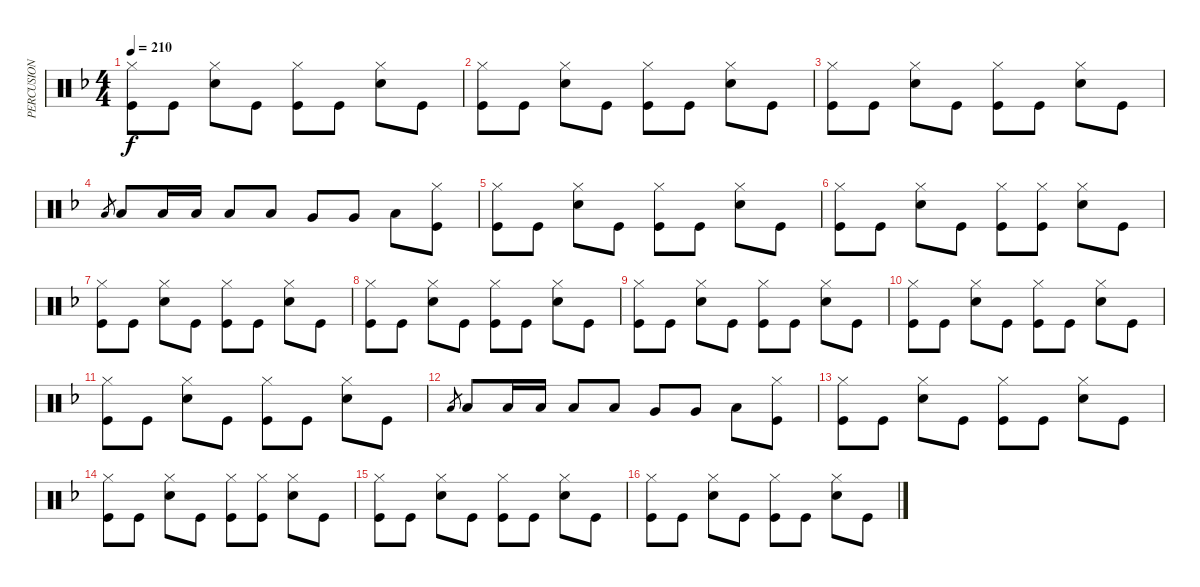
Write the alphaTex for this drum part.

\track ("PERCUSION" "PERCUSION") {instrument percussion}
\staff {score}
\articulation defaults
\ts (4 4)
\tempo 210
\clef neutral
\ks f
("Hi-Hat (closed)" "Kick (hit)").8{dy f} "Kick (hit)".8 ("Hi-Hat (closed)" "Snare (hit) 2").8 "Kick (hit)".8 ("Hi-Hat (closed)" "Kick (hit)").8 "Kick (hit)".8 ("Hi-Hat (closed)" "Snare (hit) 2").8 "Kick (hit)".8 |
("Hi-Hat (closed)" "Kick (hit)").8 "Kick (hit)".8 ("Hi-Hat (closed)" "Snare (hit) 2").8 "Kick (hit)".8 ("Hi-Hat (closed)" "Kick (hit)").8 "Kick (hit)".8 ("Hi-Hat (closed)" "Snare (hit) 2").8 "Kick (hit)".8 |
("Hi-Hat (closed)" "Kick (hit)").8 "Kick (hit)".8 ("Hi-Hat (closed)" "Snare (hit) 2").8 "Kick (hit)".8 ("Hi-Hat (closed)" "Kick (hit)").8 "Kick (hit)".8 ("Hi-Hat (closed)" "Snare (hit) 2").8 "Kick (hit)".8 |
"Low Tom (hit)".8{gr} "Low Tom (hit)".8 "Low Tom (hit)".16 "Low Tom (hit)".16 "Low Tom (hit)".8 "Low Tom (hit)".8 "Very Low Tom (hit)".8 "Very Low Tom (hit)".8 "Low Floor Tom (hit)".8 ("Hi-Hat (closed)" "Kick (hit)").8 |
("Hi-Hat (closed)" "Kick (hit)").8 "Kick (hit)".8 ("Hi-Hat (closed)" "Snare (hit) 2").8 "Kick (hit)".8 ("Hi-Hat (closed)" "Kick (hit)").8 "Kick (hit)".8 ("Hi-Hat (closed)" "Snare (hit) 2").8 "Kick (hit)".8 |
("Hi-Hat (closed)" "Kick (hit)").8 "Kick (hit)".8 ("Hi-Hat (closed)" "Snare (hit) 2").8 "Kick (hit)".8 ("Hi-Hat (closed)" "Kick (hit)").8 ("Hi-Hat (closed)" "Kick (hit)").8 ("Hi-Hat (closed)" "Snare (hit) 2").8 "Kick (hit)".8 |
("Hi-Hat (closed)" "Kick (hit)").8 "Kick (hit)".8 ("Hi-Hat (closed)" "Snare (hit) 2").8 "Kick (hit)".8 ("Hi-Hat (closed)" "Kick (hit)").8 "Kick (hit)".8 ("Hi-Hat (closed)" "Snare (hit) 2").8 "Kick (hit)".8 |
("Hi-Hat (closed)" "Kick (hit)").8 "Kick (hit)".8 ("Hi-Hat (closed)" "Snare (hit) 2").8 "Kick (hit)".8 ("Hi-Hat (closed)" "Kick (hit)").8 "Kick (hit)".8 ("Hi-Hat (closed)" "Snare (hit) 2").8 "Kick (hit)".8 |
("Hi-Hat (closed)" "Kick (hit)").8 "Kick (hit)".8 ("Hi-Hat (closed)" "Snare (hit) 2").8 "Kick (hit)".8 ("Hi-Hat (closed)" "Kick (hit)").8 "Kick (hit)".8 ("Hi-Hat (closed)" "Snare (hit) 2").8 "Kick (hit)".8 |
("Hi-Hat (closed)" "Kick (hit)").8 "Kick (hit)".8 ("Hi-Hat (closed)" "Snare (hit) 2").8 "Kick (hit)".8 ("Hi-Hat (closed)" "Kick (hit)").8 "Kick (hit)".8 ("Hi-Hat (closed)" "Snare (hit) 2").8 "Kick (hit)".8 |
("Hi-Hat (closed)" "Kick (hit)").8 "Kick (hit)".8 ("Hi-Hat (closed)" "Snare (hit) 2").8 "Kick (hit)".8 ("Hi-Hat (closed)" "Kick (hit)").8 "Kick (hit)".8 ("Hi-Hat (closed)" "Snare (hit) 2").8 "Kick (hit)".8 |
"Low Tom (hit)".8{gr} "Low Tom (hit)".8 "Low Tom (hit)".16 "Low Tom (hit)".16 "Low Tom (hit)".8 "Low Tom (hit)".8 "Very Low Tom (hit)".8 "Very Low Tom (hit)".8 "Low Floor Tom (hit)".8 ("Hi-Hat (closed)" "Kick (hit)").8 |
("Hi-Hat (closed)" "Kick (hit)").8 "Kick (hit)".8 ("Hi-Hat (closed)" "Snare (hit) 2").8 "Kick (hit)".8 ("Hi-Hat (closed)" "Kick (hit)").8 "Kick (hit)".8 ("Hi-Hat (closed)" "Snare (hit) 2").8 "Kick (hit)".8 |
("Hi-Hat (closed)" "Kick (hit)").8 "Kick (hit)".8 ("Hi-Hat (closed)" "Snare (hit) 2").8 "Kick (hit)".8 ("Hi-Hat (closed)" "Kick (hit)").8 ("Hi-Hat (closed)" "Kick (hit)").8 ("Hi-Hat (closed)" "Snare (hit) 2").8 "Kick (hit)".8 |
("Hi-Hat (closed)" "Kick (hit)").8 "Kick (hit)".8 ("Hi-Hat (closed)" "Snare (hit) 2").8 "Kick (hit)".8 ("Hi-Hat (closed)" "Kick (hit)").8 "Kick (hit)".8 ("Hi-Hat (closed)" "Snare (hit) 2").8 "Kick (hit)".8 |
("Hi-Hat (closed)" "Kick (hit)").8 "Kick (hit)".8 ("Hi-Hat (closed)" "Snare (hit) 2").8 "Kick (hit)".8 ("Hi-Hat (closed)" "Kick (hit)").8 "Kick (hit)".8 ("Hi-Hat (closed)" "Snare (hit) 2").8 "Kick (hit)".8
